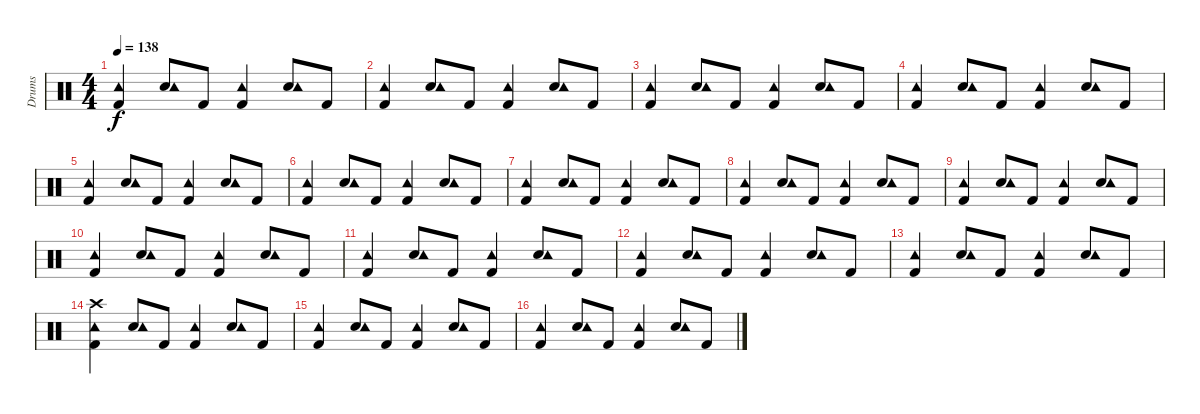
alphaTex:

\track ("Drums" "Drums") {instrument percussion}
\staff {score}
\articulation defaults
\ts (4 4)
\tempo 138
\clef neutral
\ks c
("Kick (hit) 2" "Tambourine (hit)").4{dy f} ("Snare (hit) 2" "Tambourine (hit)").8 "Kick (hit) 2".8 ("Kick (hit) 2" "Tambourine (hit)").4 ("Snare (hit) 2" "Tambourine (hit)").8 "Kick (hit) 2".8 |
("Kick (hit) 2" "Tambourine (hit)").4 ("Snare (hit) 2" "Tambourine (hit)").8 "Kick (hit) 2".8 ("Kick (hit) 2" "Tambourine (hit)").4 ("Snare (hit) 2" "Tambourine (hit)").8 "Kick (hit) 2".8 |
("Kick (hit) 2" "Tambourine (hit)").4 ("Snare (hit) 2" "Tambourine (hit)").8 "Kick (hit) 2".8 ("Kick (hit) 2" "Tambourine (hit)").4 ("Snare (hit) 2" "Tambourine (hit)").8 "Kick (hit) 2".8 |
("Kick (hit) 2" "Tambourine (hit)").4 ("Snare (hit) 2" "Tambourine (hit)").8 "Kick (hit) 2".8 ("Kick (hit) 2" "Tambourine (hit)").4 ("Snare (hit) 2" "Tambourine (hit)").8 "Kick (hit) 2".8 |
("Kick (hit) 2" "Tambourine (hit)").4 ("Snare (hit) 2" "Tambourine (hit)").8 "Kick (hit) 2".8 ("Kick (hit) 2" "Tambourine (hit)").4 ("Snare (hit) 2" "Tambourine (hit)").8 "Kick (hit) 2".8 |
("Kick (hit) 2" "Tambourine (hit)").4 ("Snare (hit) 2" "Tambourine (hit)").8 "Kick (hit) 2".8 ("Kick (hit) 2" "Tambourine (hit)").4 ("Snare (hit) 2" "Tambourine (hit)").8 "Kick (hit) 2".8 |
("Kick (hit) 2" "Tambourine (hit)").4 ("Snare (hit) 2" "Tambourine (hit)").8 "Kick (hit) 2".8 ("Kick (hit) 2" "Tambourine (hit)").4 ("Snare (hit) 2" "Tambourine (hit)").8 "Kick (hit) 2".8 |
("Kick (hit) 2" "Tambourine (hit)").4 ("Snare (hit) 2" "Tambourine (hit)").8 "Kick (hit) 2".8 ("Kick (hit) 2" "Tambourine (hit)").4 ("Snare (hit) 2" "Tambourine (hit)").8 "Kick (hit) 2".8 |
("Kick (hit) 2" "Tambourine (hit)").4 ("Snare (hit) 2" "Tambourine (hit)").8 "Kick (hit) 2".8 ("Kick (hit) 2" "Tambourine (hit)").4 ("Snare (hit) 2" "Tambourine (hit)").8 "Kick (hit) 2".8 |
("Kick (hit) 2" "Tambourine (hit)").4 ("Snare (hit) 2" "Tambourine (hit)").8 "Kick (hit) 2".8 ("Kick (hit) 2" "Tambourine (hit)").4 ("Snare (hit) 2" "Tambourine (hit)").8 "Kick (hit) 2".8 |
("Kick (hit) 2" "Tambourine (hit)").4 ("Snare (hit) 2" "Tambourine (hit)").8 "Kick (hit) 2".8 ("Kick (hit) 2" "Tambourine (hit)").4 ("Snare (hit) 2" "Tambourine (hit)").8 "Kick (hit) 2".8 |
("Kick (hit) 2" "Tambourine (hit)").4 ("Snare (hit) 2" "Tambourine (hit)").8 "Kick (hit) 2".8 ("Kick (hit) 2" "Tambourine (hit)").4 ("Snare (hit) 2" "Tambourine (hit)").8 "Kick (hit) 2".8 |
("Kick (hit) 2" "Tambourine (hit)").4 ("Snare (hit) 2" "Tambourine (hit)").8 "Kick (hit) 2".8 ("Kick (hit) 2" "Tambourine (hit)").4 ("Snare (hit) 2" "Tambourine (hit)").8 "Kick (hit) 2".8 |
("Kick (hit) 2" "Tambourine (hit)" "Crash high (hit)").4 ("Snare (hit) 2" "Tambourine (hit)").8 "Kick (hit) 2".8 ("Kick (hit) 2" "Tambourine (hit)").4 ("Snare (hit) 2" "Tambourine (hit)").8 "Kick (hit) 2".8 |
("Kick (hit) 2" "Tambourine (hit)").4 ("Snare (hit) 2" "Tambourine (hit)").8 "Kick (hit) 2".8 ("Kick (hit) 2" "Tambourine (hit)").4 ("Snare (hit) 2" "Tambourine (hit)").8 "Kick (hit) 2".8 |
("Kick (hit) 2" "Tambourine (hit)").4 ("Snare (hit) 2" "Tambourine (hit)").8 "Kick (hit) 2".8 ("Kick (hit) 2" "Tambourine (hit)").4 ("Snare (hit) 2" "Tambourine (hit)").8 "Kick (hit) 2".8
